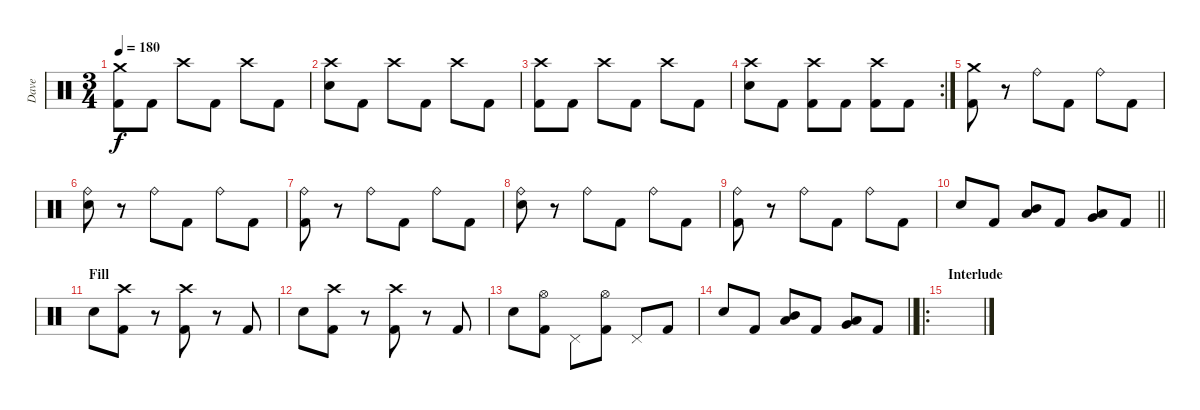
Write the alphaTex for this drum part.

\track ("Dave" "Dave") {instrument percussion}
\staff {score}
\articulation defaults
\ts (3 4)
\tempo 180
\clef neutral
\ks c
("Kick (hit) 2" "Crash medium (hit)").8{dy f} "Kick (hit) 2".8 "Crash high (hit)".8 "Kick (hit) 2".8 "Crash high (hit)".8 "Kick (hit) 2".8 |
("Electric Snare (hit)" "Crash high (hit)").8 "Kick (hit) 2".8 "Crash high (hit)".8 "Kick (hit) 2".8 "Crash high (hit)".8 "Kick (hit) 2".8 |
("Kick (hit) 2" "Crash high (hit)").8 "Kick (hit) 2".8 "Crash high (hit)".8 "Kick (hit) 2".8 "Crash high (hit)".8 "Kick (hit) 2".8 |
\rc 2
("Electric Snare (hit)" "Crash high (hit)").8 "Kick (hit) 2".8 ("Kick (hit) 2" "Crash high (hit)").8 "Kick (hit) 2".8 ("Kick (hit) 2" "Crash high (hit)").8 "Kick (hit) 2".8 |
("Kick (hit) 2" "Crash medium (hit)").8 r.8 "Ride (bell)".8 "Kick (hit) 2".8 "Ride (bell)".8 "Kick (hit) 2".8 |
("Electric Snare (hit)" "Ride (bell)").8 r.8 "Ride (bell)".8 "Kick (hit) 2".8 "Ride (bell)".8 "Kick (hit) 2".8 |
("Kick (hit) 2" "Ride (bell)").8 r.8 "Ride (bell)".8 "Kick (hit) 2".8 "Ride (bell)".8 "Kick (hit) 2".8 |
("Electric Snare (hit)" "Ride (bell)").8 r.8 "Ride (bell)".8 "Kick (hit) 2".8 "Ride (bell)".8 "Kick (hit) 2".8 |
("Kick (hit) 2" "Ride (bell)").8 r.8 "Ride (bell)".8 "Kick (hit) 2".8 "Ride (bell)".8 "Kick (hit) 2".8 |
\barLineRight lightlight "Electric Snare (hit)".8 "Kick (hit) 2".8
("Mid Tom (hit)" "Low Tom (hit)").8 "Kick (hit) 2".8 ("Low Tom (hit)" "Very Low Tom (hit)").8 "Kick (hit) 2".8 |
\section ("" "Fill")
"Electric Snare (hit)".8 ("Kick (hit) 2" "Crash high (hit)").8 r.8 ("Kick (hit) 2" "Crash high (hit)").8 r.8 "Kick (hit) 2".8 |
"Electric Snare (hit)".8 ("Kick (hit) 2" "Crash high (hit)").8 r.8 ("Kick (hit) 2" "Crash high (hit)").8 r.8 "Kick (hit) 2".8 |
"Electric Snare (hit)".8 ("Kick (hit) 2" "Hi-Hat (open)").8 "Pedal Hi-Hat (hit)".8 ("Kick (hit) 2" "Hi-Hat (open)").8 "Pedal Hi-Hat (hit)".8 "Kick (hit) 2".8 |
\barLineRight lightlight "Electric Snare (hit)".8 "Kick (hit) 2".8
("Mid Tom (hit)" "Low Tom (hit)").8 "Kick (hit) 2".8 ("Low Tom (hit)" "Very Low Tom (hit)").8 "Kick (hit) 2".8 |
\ro
\section ("" "Interlude")
